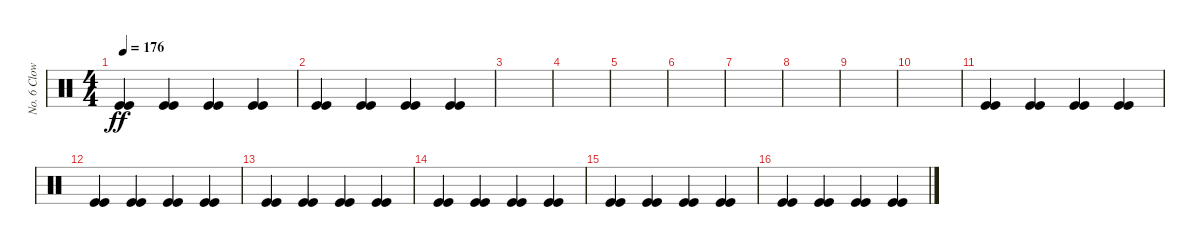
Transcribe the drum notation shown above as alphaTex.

\track ("No. 6 Clown" "No. 6 Clow") {instrument percussion}
\staff {score}
\articulation defaults
\ts (4 4)
\tempo 176
\clef neutral
\ks c
("Kick (hit)" "Kick (hit)").4{dy ff} ("Kick (hit)" "Kick (hit)").4 ("Kick (hit)" "Kick (hit)").4 ("Kick (hit)" "Kick (hit)").4 |
("Kick (hit)" "Kick (hit)").4 ("Kick (hit)" "Kick (hit)").4 ("Kick (hit)" "Kick (hit)").4 ("Kick (hit)" "Kick (hit)").4 |
|
|
|
|
|
|
|
|
("Kick (hit)" "Kick (hit)").4 ("Kick (hit)" "Kick (hit)").4 ("Kick (hit)" "Kick (hit)").4 ("Kick (hit)" "Kick (hit)").4 |
("Kick (hit)" "Kick (hit)").4 ("Kick (hit)" "Kick (hit)").4 ("Kick (hit)" "Kick (hit)").4 ("Kick (hit)" "Kick (hit)").4 |
("Kick (hit)" "Kick (hit)").4 ("Kick (hit)" "Kick (hit)").4 ("Kick (hit)" "Kick (hit)").4 ("Kick (hit)" "Kick (hit)").4 |
("Kick (hit)" "Kick (hit)").4 ("Kick (hit)" "Kick (hit)").4 ("Kick (hit)" "Kick (hit)").4 ("Kick (hit)" "Kick (hit)").4 |
("Kick (hit)" "Kick (hit)").4 ("Kick (hit)" "Kick (hit)").4 ("Kick (hit)" "Kick (hit)").4 ("Kick (hit)" "Kick (hit)").4 |
("Kick (hit)" "Kick (hit)").4 ("Kick (hit)" "Kick (hit)").4 ("Kick (hit)" "Kick (hit)").4 ("Kick (hit)" "Kick (hit)").4
